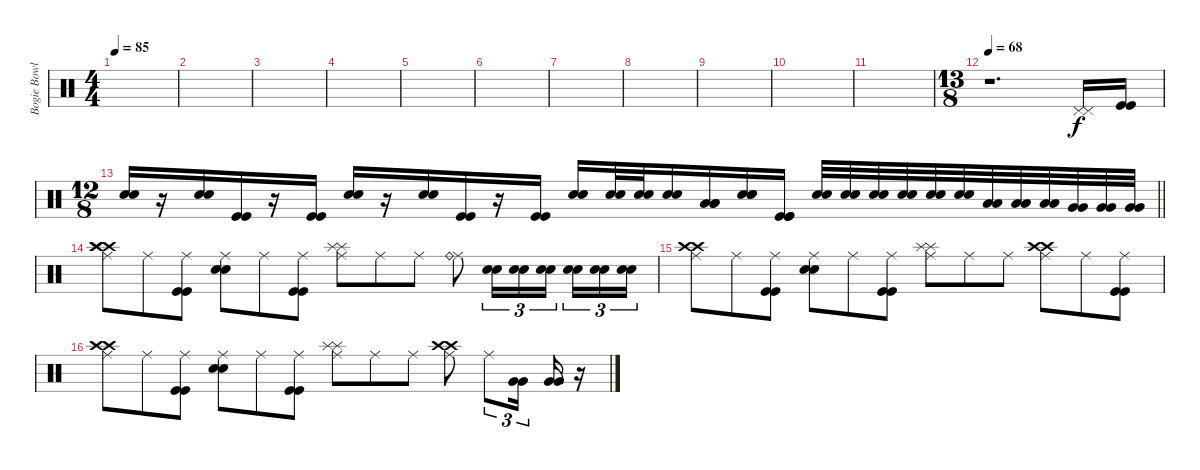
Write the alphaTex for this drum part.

\track ("Bogie Bowles Drums" "Bogie Bowl") {instrument percussion}
\staff {score}
\articulation defaults
\ts (4 4)
\tempo 85
\clef neutral
\ks c
|
|
|
|
|
|
|
|
|
|
|
\ts (13 8)
\tempo 68
r.1{d} ("Pedal Hi-Hat (hit)" "Pedal Hi-Hat (hit)").16 ("Kick (hit)" "Kick (hit)").16 |
\ts (12 8)
\barLineRight lightlight
("Snare (hit) 2" "Snare (hit) 2").16 r.16 ("Snare (hit) 2" "Snare (hit) 2").16 ("Kick (hit)" "Kick (hit)").16 r.16 ("Kick (hit)" "Kick (hit)").16 ("Snare (hit) 2" "Snare (hit) 2").16 r.16 ("Snare (hit) 2" "Snare (hit) 2").16 ("Kick (hit)" "Kick (hit)").16 r.16 ("Kick (hit)" "Kick (hit)").16 ("Snare (hit) 2" "Snare (hit) 2").16 ("Snare (hit) 2" "Snare (hit) 2").32 ("Snare (hit) 2" "Snare (hit) 2").32 ("Snare (hit) 2" "Snare (hit) 2").16 ("Low Tom (hit)" "Low Tom (hit)" "Low Tom (hit)").16 ("Snare (hit) 2" "Snare (hit) 2" "Snare (hit) 2").16 ("Kick (hit)" "Kick (hit)" "Kick (hit)").16 ("Snare (hit) 2" "Snare (hit) 2").32 ("Snare (hit) 2" "Snare (hit) 2").32 ("Snare (hit) 2" "Snare (hit) 2").32 ("Snare (hit) 2" "Snare (hit) 2").32 ("Snare (hit) 2" "Snare (hit) 2").32 ("Snare (hit) 2" "Snare (hit) 2").32 ("Low Tom (hit)" "Low Tom (hit)").32 ("Low Tom (hit)" "Low Tom (hit)").32 ("Low Tom (hit)" "Low Tom (hit)").32 ("Very Low Tom (hit)" "Very Low Tom (hit)").32 ("Very Low Tom (hit)" "Very Low Tom (hit)").32 ("Very Low Tom (hit)" "Very Low Tom (hit)").32 |
("Ride (middle)" "Crash high (hit)" "Crash high (hit)" "Crash high (hit)").8 "Ride (middle)".8 ("Ride (middle)" "Kick (hit)" "Kick (hit)").8 ("Ride (middle)" "Snare (hit) 2" "Snare (hit) 2").8 "Ride (middle)".8 ("Ride (middle)" "Kick (hit)" "Kick (hit)").8 ("Ride (middle)" "Splash (hit)" "Splash (hit)").8 "Ride (middle)".8 "Ride (middle)".8 ("Ride (middle)" "Ride (bell)").8 ("Snare (hit) 2" "Snare (hit) 2").16{tu (3 2)} ("Snare (hit) 2" "Snare (hit) 2").16{tu (3 2)} ("Snare (hit) 2" "Snare (hit) 2").16{tu (3 2) beam splitsecondary} ("Snare (hit) 2" "Snare (hit) 2").16{tu (3 2)} ("Snare (hit) 2" "Snare (hit) 2").16{tu (3 2)} ("Snare (hit) 2" "Snare (hit) 2").16{tu (3 2)} |
("Ride (middle)" "Crash high (hit)" "Crash high (hit)").8 "Ride (middle)".8 ("Ride (middle)" "Kick (hit)" "Kick (hit)").8 ("Ride (middle)" "Snare (hit) 2" "Snare (hit) 2").8 "Ride (middle)".8 ("Ride (middle)" "Kick (hit)" "Kick (hit)").8 ("Ride (middle)" "Splash (hit)" "Splash (hit)").8 "Ride (middle)".8 "Ride (middle)".8 ("Ride (middle)" "Crash high (hit)" "Crash high (hit)").8 "Ride (middle)".8 ("Ride (middle)" "Kick (hit)" "Kick (hit)").8 |
("Ride (middle)" "Crash high (hit)" "Crash high (hit)").8 "Ride (middle)".8 ("Ride (middle)" "Kick (hit)" "Kick (hit)").8 ("Ride (middle)" "Snare (hit) 2" "Snare (hit) 2").8 "Ride (middle)".8 ("Ride (middle)" "Kick (hit)" "Kick (hit)").8 ("Ride (middle)" "Splash (hit)" "Splash (hit)").8 "Ride (middle)".8 "Ride (middle)".8 ("Ride (middle)" "Crash high (hit)" "Crash high (hit)").8 "Ride (middle)".8{tu (3 2)} ("Very Low Tom (hit)" "Very Low Tom (hit)").16{tu (3 2)} ("Very Low Tom (hit)" "Very Low Tom (hit)").16 r.16
